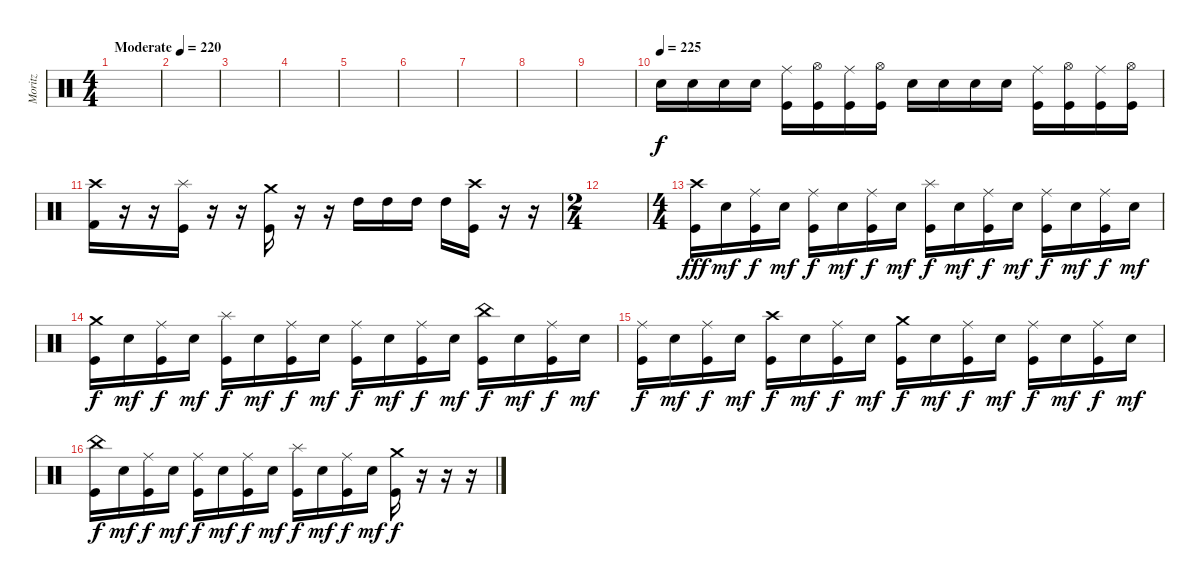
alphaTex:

\track ("Moritz" "Moritz") {instrument percussion}
\staff {score}
\articulation defaults
\ts (4 4)
\tempo (220 "Moderate")
\tempo 112
\tempo (220 "Moderate")
\clef neutral
\ks c
|
|
|
|
|
|
|
|
|
\tempo (225)
"Snare (hit) 2".16 "Snare (hit) 2".16 "Snare (hit) 2".16 "Snare (hit) 2".16 ("Ride (middle)" "Kick (hit)").16 ("Hi-Hat (open)" "Kick (hit)").16 ("Ride (middle)" "Kick (hit)").16 ("Hi-Hat (open)" "Kick (hit)").16 "Snare (hit) 2".16 "Snare (hit) 2".16 "Snare (hit) 2".16 "Snare (hit) 2".16 ("Ride (middle)" "Kick (hit)").16 ("Hi-Hat (open)" "Kick (hit)").16 ("Ride (middle)" "Kick (hit)").16 ("Hi-Hat (open)" "Kick (hit)").16 |
("Crash high (hit)" "Kick (hit) 2").16 r.16 r.16 ("Splash (hit)" "Kick (hit)").16 r.16 r.16 ("Crash medium (hit)" "Kick (hit)").16 r.16 r.16 "High Tom (hit)".16 "High Tom (hit)".16 "High Tom (hit)".16 "High Tom (hit)".16 ("Crash high (hit)" "Kick (hit)").16 r.16 r.16 |
\ts (2 4)
|
\ts (4 4)
("Crash high (hit)" "Kick (hit)").16{dy fff} "Snare (hit) 2".16{dy mf} ("Ride (middle)" "Kick (hit)").16{dy f} "Snare (hit) 2".16{dy mf} ("Ride (middle)" "Kick (hit)").16{dy f} "Snare (hit) 2".16{dy mf} ("Ride (middle)" "Kick (hit)").16{dy f} "Snare (hit) 2".16{dy mf} ("Splash (hit)" "Kick (hit)").16{dy f} "Snare (hit) 2".16{dy mf} ("Ride (middle)" "Kick (hit)").16{dy f} "Snare (hit) 2".16{dy mf} ("Ride (middle)" "Kick (hit)").16{dy f} "Snare (hit) 2".16{dy mf} ("Ride (middle)" "Kick (hit)").16{dy f} "Snare (hit) 2".16{dy mf} |
("Crash medium (hit)" "Kick (hit)").16{dy f} "Snare (hit) 2".16{dy mf} ("Ride (middle)" "Kick (hit)").16{dy f} "Snare (hit) 2".16{dy mf} ("Splash (hit)" "Kick (hit)").16{dy f} "Snare (hit) 2".16{dy mf} ("Ride (middle)" "Kick (hit)").16{dy f} "Snare (hit) 2".16{dy mf} ("Ride (middle)" "Kick (hit)").16{dy f} "Snare (hit) 2".16{dy mf} ("Ride (middle)" "Kick (hit)").16{dy f} "Snare (hit) 2".16{dy mf} ("China (hit)" "Kick (hit)").16{dy f} "Snare (hit) 2".16{dy mf} ("Ride (middle)" "Kick (hit)").16{dy f} "Snare (hit) 2".16{dy mf} |
("Ride (middle)" "Kick (hit)").16{dy f} "Snare (hit) 2".16{dy mf} ("Ride (middle)" "Kick (hit)").16{dy f} "Snare (hit) 2".16{dy mf} ("Crash high (hit)" "Kick (hit)").16{dy f} "Snare (hit) 2".16{dy mf} ("Ride (middle)" "Kick (hit)").16{dy f} "Snare (hit) 2".16{dy mf} ("Crash medium (hit)" "Kick (hit)").16{dy f} "Snare (hit) 2".16{dy mf} ("Ride (middle)" "Kick (hit)").16{dy f} "Snare (hit) 2".16{dy mf} ("Ride (middle)" "Kick (hit)").16{dy f} "Snare (hit) 2".16{dy mf} ("Ride (middle)" "Kick (hit)").16{dy f} "Snare (hit) 2".16{dy mf} |
("China (hit)" "Kick (hit)").16{dy f} "Snare (hit) 2".16{dy mf} ("Ride (middle)" "Kick (hit)").16{dy f} "Snare (hit) 2".16{dy mf} ("Ride (middle)" "Kick (hit)").16{dy f} "Snare (hit) 2".16{dy mf} ("Ride (middle)" "Kick (hit)").16{dy f} "Snare (hit) 2".16{dy mf} ("Splash (hit)" "Kick (hit)").16{dy f} "Snare (hit) 2".16{dy mf} ("Ride (middle)" "Kick (hit)").16{dy f} "Snare (hit) 2".16{dy mf} ("Crash medium (hit)" "Kick (hit)").16{dy f} r.16 r.16 r.16
